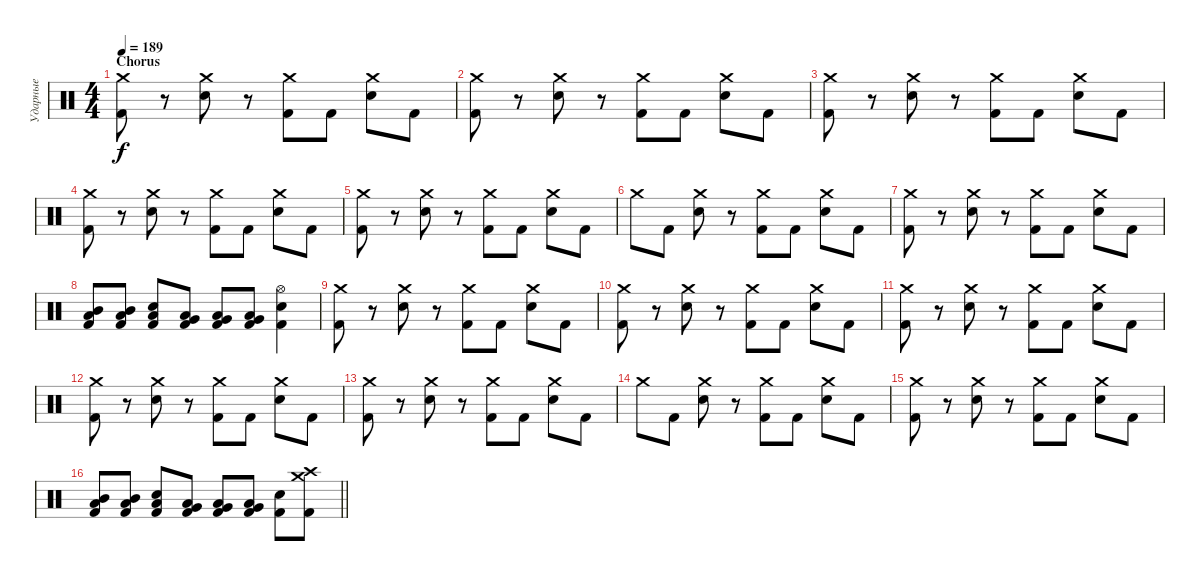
\track ("Ударные" "Ударные") {instrument percussion}
\staff {score}
\articulation defaults
\ts (4 4)
\section ("" "Chorus")
\tempo 189
\clef neutral
\ks c
("Crash medium (hit)" "Kick (hit) 2").8{dy f} r.8 ("Crash medium (hit)" "Electric Snare (hit)").8 r.8 ("Crash medium (hit)" "Kick (hit) 2").8 "Kick (hit) 2".8 ("Crash medium (hit)" "Electric Snare (hit)").8 "Kick (hit) 2".8 |
("Crash medium (hit)" "Kick (hit) 2").8 r.8 ("Crash medium (hit)" "Electric Snare (hit)").8 r.8 ("Crash medium (hit)" "Kick (hit) 2").8 "Kick (hit) 2".8 ("Crash medium (hit)" "Electric Snare (hit)").8 "Kick (hit) 2".8 |
("Crash medium (hit)" "Kick (hit) 2").8 r.8 ("Crash medium (hit)" "Electric Snare (hit)").8 r.8 ("Crash medium (hit)" "Kick (hit) 2").8 "Kick (hit) 2".8 ("Crash medium (hit)" "Electric Snare (hit)").8 "Kick (hit) 2".8 |
("Crash medium (hit)" "Kick (hit) 2").8 r.8 ("Crash medium (hit)" "Electric Snare (hit)").8 r.8 ("Crash medium (hit)" "Kick (hit) 2").8 "Kick (hit) 2".8 ("Crash medium (hit)" "Electric Snare (hit)").8 "Kick (hit) 2".8 |
("Crash medium (hit)" "Kick (hit) 2").8 r.8 ("Crash medium (hit)" "Electric Snare (hit)").8 r.8 ("Crash medium (hit)" "Kick (hit) 2").8 "Kick (hit) 2".8 ("Crash medium (hit)" "Electric Snare (hit)").8 "Kick (hit) 2".8 |
"Crash medium (hit)".8 "Kick (hit) 2".8 ("Crash medium (hit)" "Electric Snare (hit)").8 r.8 ("Crash medium (hit)" "Kick (hit) 2").8 "Kick (hit) 2".8 ("Crash medium (hit)" "Electric Snare (hit)").8 "Kick (hit) 2".8 |
("Crash medium (hit)" "Kick (hit) 2").8 r.8 ("Crash medium (hit)" "Electric Snare (hit)").8 r.8 ("Crash medium (hit)" "Kick (hit) 2").8 "Kick (hit) 2".8 ("Crash medium (hit)" "Electric Snare (hit)").8 "Kick (hit) 2".8 |
("Low Tom (hit)" "Mid Tom (hit)" "Kick (hit) 2").8 ("Low Tom (hit)" "Mid Tom (hit)" "Kick (hit) 2").8 ("Low Tom (hit)" "Electric Snare (hit)" "Kick (hit) 2").8 ("Very Low Tom (hit)" "Low Tom (hit)" "Kick (hit) 2").8 ("Low Floor Tom (hit)" "Very Low Tom (hit)" "Kick (hit) 2").8 ("Low Floor Tom (hit)" "Very Low Tom (hit)" "Kick (hit) 2").8 ("Hi-Hat (open)" "Electric Snare (hit)" "Kick (hit) 2").4 |
("Crash medium (hit)" "Kick (hit) 2").8 r.8 ("Crash medium (hit)" "Electric Snare (hit)").8 r.8 ("Crash medium (hit)" "Kick (hit) 2").8 "Kick (hit) 2".8 ("Crash medium (hit)" "Electric Snare (hit)").8 "Kick (hit) 2".8 |
("Crash medium (hit)" "Kick (hit) 2").8 r.8 ("Crash medium (hit)" "Electric Snare (hit)").8 r.8 ("Crash medium (hit)" "Kick (hit) 2").8 "Kick (hit) 2".8 ("Crash medium (hit)" "Electric Snare (hit)").8 "Kick (hit) 2".8 |
("Crash medium (hit)" "Kick (hit) 2").8 r.8 ("Crash medium (hit)" "Electric Snare (hit)").8 r.8 ("Crash medium (hit)" "Kick (hit) 2").8 "Kick (hit) 2".8 ("Crash medium (hit)" "Electric Snare (hit)").8 "Kick (hit) 2".8 |
("Crash medium (hit)" "Kick (hit) 2").8 r.8 ("Crash medium (hit)" "Electric Snare (hit)").8 r.8 ("Crash medium (hit)" "Kick (hit) 2").8 "Kick (hit) 2".8 ("Crash medium (hit)" "Electric Snare (hit)").8 "Kick (hit) 2".8 |
("Crash medium (hit)" "Kick (hit) 2").8 r.8 ("Crash medium (hit)" "Electric Snare (hit)").8 r.8 ("Crash medium (hit)" "Kick (hit) 2").8 "Kick (hit) 2".8 ("Crash medium (hit)" "Electric Snare (hit)").8 "Kick (hit) 2".8 |
"Crash medium (hit)".8 "Kick (hit) 2".8 ("Crash medium (hit)" "Electric Snare (hit)").8 r.8 ("Crash medium (hit)" "Kick (hit) 2").8 "Kick (hit) 2".8 ("Crash medium (hit)" "Electric Snare (hit)").8 "Kick (hit) 2".8 |
("Crash medium (hit)" "Kick (hit) 2").8 r.8 ("Crash medium (hit)" "Electric Snare (hit)").8 r.8 ("Crash medium (hit)" "Kick (hit) 2").8 "Kick (hit) 2".8 ("Crash medium (hit)" "Electric Snare (hit)").8 "Kick (hit) 2".8 |
\barLineRight lightlight
("Low Tom (hit)" "Mid Tom (hit)" "Kick (hit) 2").8 ("Low Tom (hit)" "Mid Tom (hit)" "Kick (hit) 2").8 ("Low Tom (hit)" "Electric Snare (hit)" "Kick (hit) 2").8 ("Very Low Tom (hit)" "Low Tom (hit)" "Kick (hit) 2").8 ("Low Floor Tom (hit)" "Very Low Tom (hit)" "Kick (hit) 2").8 ("Low Floor Tom (hit)" "Very Low Tom (hit)" "Kick (hit) 2").8 ("Electric Snare (hit)" "Kick (hit) 2").8 ("Crash medium (hit)" "Crash high (hit)" "Kick (hit) 2").8
